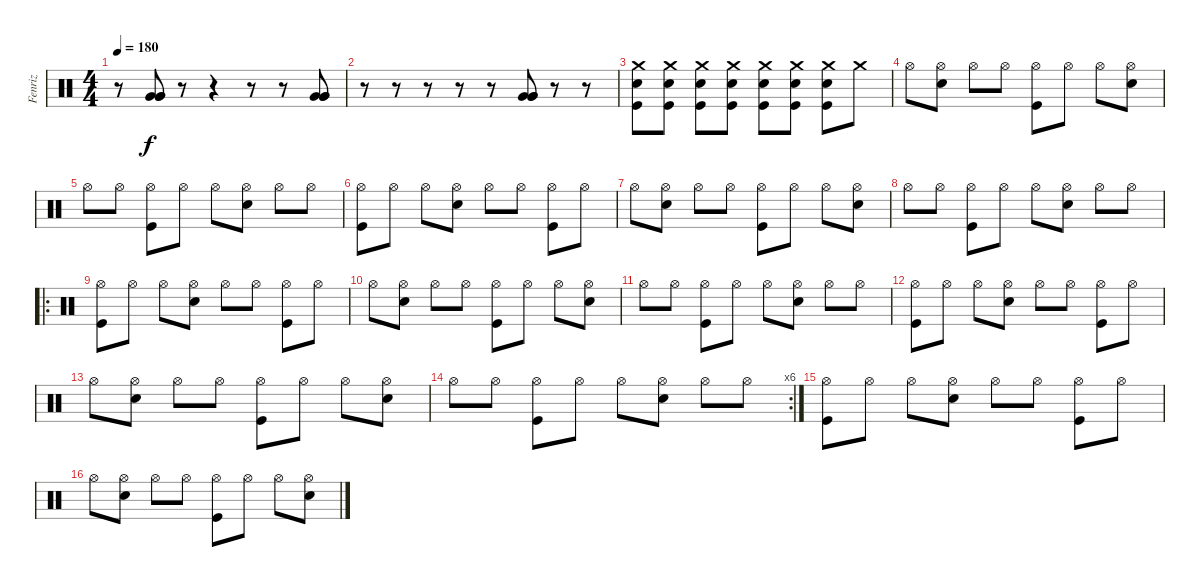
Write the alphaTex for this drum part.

\track ("Fenriz" "Fenriz") {instrument percussion}
\staff {score}
\articulation defaults
\ts (4 4)
\tempo 180
\clef neutral
\ks c
r.8{dy f} ("Very Low Tom (hit)" "Very Low Tom (hit)" "Very Low Tom (hit)").8 r.8 r.4 r.8 r.8 ("Very Low Tom (hit)" "Very Low Tom (hit)" "Very Low Tom (hit)").8 |
r.8 r.8 r.8 r.8 r.8 ("Very Low Tom (hit)" "Very Low Tom (hit)" "Very Low Tom (hit)").8 r.8 r.8 |
("Kick (hit)" "Snare (hit) 2" "Crash medium (hit)").8 ("Kick (hit)" "Snare (hit) 2" "Crash medium (hit)").8 ("Kick (hit)" "Snare (hit) 2" "Crash medium (hit)").8 ("Kick (hit)" "Snare (hit) 2" "Crash medium (hit)").8 ("Kick (hit)" "Snare (hit) 2" "Crash medium (hit)").8 ("Kick (hit)" "Snare (hit) 2" "Crash medium (hit)").8 ("Kick (hit)" "Snare (hit) 2" "Crash medium (hit)").8 "Crash medium (hit)".8 |
"Hi-Hat (open)".8 ("Hi-Hat (open)" "Snare (hit) 2").8 "Hi-Hat (open)".8 "Hi-Hat (open)".8 ("Hi-Hat (open)" "Kick (hit)").8 "Hi-Hat (open)".8 "Hi-Hat (open)".8 ("Hi-Hat (open)" "Snare (hit) 2").8 |
"Hi-Hat (open)".8 "Hi-Hat (open)".8 ("Hi-Hat (open)" "Kick (hit)").8 "Hi-Hat (open)".8 "Hi-Hat (open)".8 ("Hi-Hat (open)" "Snare (hit) 2").8 "Hi-Hat (open)".8 "Hi-Hat (open)".8 |
("Hi-Hat (open)" "Kick (hit)").8 "Hi-Hat (open)".8 "Hi-Hat (open)".8 ("Hi-Hat (open)" "Snare (hit) 2").8 "Hi-Hat (open)".8 "Hi-Hat (open)".8 ("Hi-Hat (open)" "Kick (hit)").8 "Hi-Hat (open)".8 |
"Hi-Hat (open)".8 ("Hi-Hat (open)" "Snare (hit) 2").8 "Hi-Hat (open)".8 "Hi-Hat (open)".8 ("Hi-Hat (open)" "Kick (hit)").8 "Hi-Hat (open)".8 "Hi-Hat (open)".8 ("Hi-Hat (open)" "Snare (hit) 2").8 |
"Hi-Hat (open)".8 "Hi-Hat (open)".8 ("Hi-Hat (open)" "Kick (hit)").8 "Hi-Hat (open)".8 "Hi-Hat (open)".8 ("Hi-Hat (open)" "Snare (hit) 2").8 "Hi-Hat (open)".8 "Hi-Hat (open)".8 |
\ro
("Hi-Hat (open)" "Kick (hit)").8 "Hi-Hat (open)".8 "Hi-Hat (open)".8 ("Hi-Hat (open)" "Snare (hit) 2").8 "Hi-Hat (open)".8 "Hi-Hat (open)".8 ("Hi-Hat (open)" "Kick (hit)").8 "Hi-Hat (open)".8 |
"Hi-Hat (open)".8 ("Hi-Hat (open)" "Snare (hit) 2").8 "Hi-Hat (open)".8 "Hi-Hat (open)".8 ("Hi-Hat (open)" "Kick (hit)").8 "Hi-Hat (open)".8 "Hi-Hat (open)".8 ("Hi-Hat (open)" "Snare (hit) 2").8 |
"Hi-Hat (open)".8 "Hi-Hat (open)".8 ("Hi-Hat (open)" "Kick (hit)").8 "Hi-Hat (open)".8 "Hi-Hat (open)".8 ("Hi-Hat (open)" "Snare (hit) 2").8 "Hi-Hat (open)".8 "Hi-Hat (open)".8 |
("Hi-Hat (open)" "Kick (hit)").8 "Hi-Hat (open)".8 "Hi-Hat (open)".8 ("Hi-Hat (open)" "Snare (hit) 2").8 "Hi-Hat (open)".8 "Hi-Hat (open)".8 ("Hi-Hat (open)" "Kick (hit)").8 "Hi-Hat (open)".8 |
"Hi-Hat (open)".8 ("Hi-Hat (open)" "Snare (hit) 2").8 "Hi-Hat (open)".8 "Hi-Hat (open)".8 ("Hi-Hat (open)" "Kick (hit)").8 "Hi-Hat (open)".8 "Hi-Hat (open)".8 ("Hi-Hat (open)" "Snare (hit) 2").8 |
\rc 6 "Hi-Hat (open)".8 "Hi-Hat (open)".8
("Hi-Hat (open)" "Kick (hit)").8 "Hi-Hat (open)".8 "Hi-Hat (open)".8 ("Hi-Hat (open)" "Snare (hit) 2").8 "Hi-Hat (open)".8 "Hi-Hat (open)".8 |
("Hi-Hat (open)" "Kick (hit)").8 "Hi-Hat (open)".8 "Hi-Hat (open)".8 ("Hi-Hat (open)" "Snare (hit) 2").8 "Hi-Hat (open)".8 "Hi-Hat (open)".8 ("Hi-Hat (open)" "Kick (hit)").8 "Hi-Hat (open)".8 |
"Hi-Hat (open)".8 ("Hi-Hat (open)" "Snare (hit) 2").8 "Hi-Hat (open)".8 "Hi-Hat (open)".8 ("Hi-Hat (open)" "Kick (hit)").8 "Hi-Hat (open)".8 "Hi-Hat (open)".8 ("Hi-Hat (open)" "Snare (hit) 2").8
